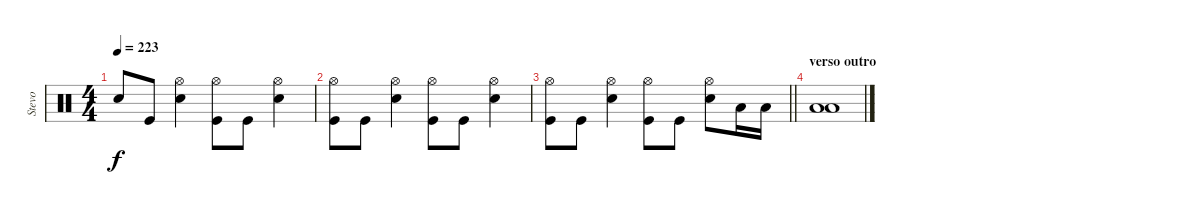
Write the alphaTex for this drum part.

\track ("Stevo" "Stevo") {instrument percussion}
\staff {score}
\articulation defaults
\ts (4 4)
\tempo 223
\clef neutral
\ks c "Snare (hit)"{t}.8{dy f} "Kick (hit)".8
("Hi-Hat (open)" "Electric Snare (hit)").4 ("Hi-Hat (open)" "Kick (hit)").8 "Kick (hit)".8 ("Hi-Hat (open)" "Electric Snare (hit)").4 |
("Kick (hit)" "Hi-Hat (open)").8 "Kick (hit)".8 ("Electric Snare (hit)" "Hi-Hat (open)").4 ("Kick (hit)" "Hi-Hat (open)").8 "Kick (hit)".8 ("Electric Snare (hit)" "Hi-Hat (open)").4 |
\barLineRight lightlight
("Kick (hit)" "Hi-Hat (open)").8 "Kick (hit)".8 ("Electric Snare (hit)" "Hi-Hat (open)").4 ("Kick (hit)" "Hi-Hat (open)").8 "Kick (hit)".8 ("Electric Snare (hit)" "Hi-Hat (open)").8 "Low Floor Tom (hit)".16 "Low Floor Tom (hit)".16 |
\section ("" "verso outro")
("Low Tom (hit)" "Low Floor Tom (hit)").1
